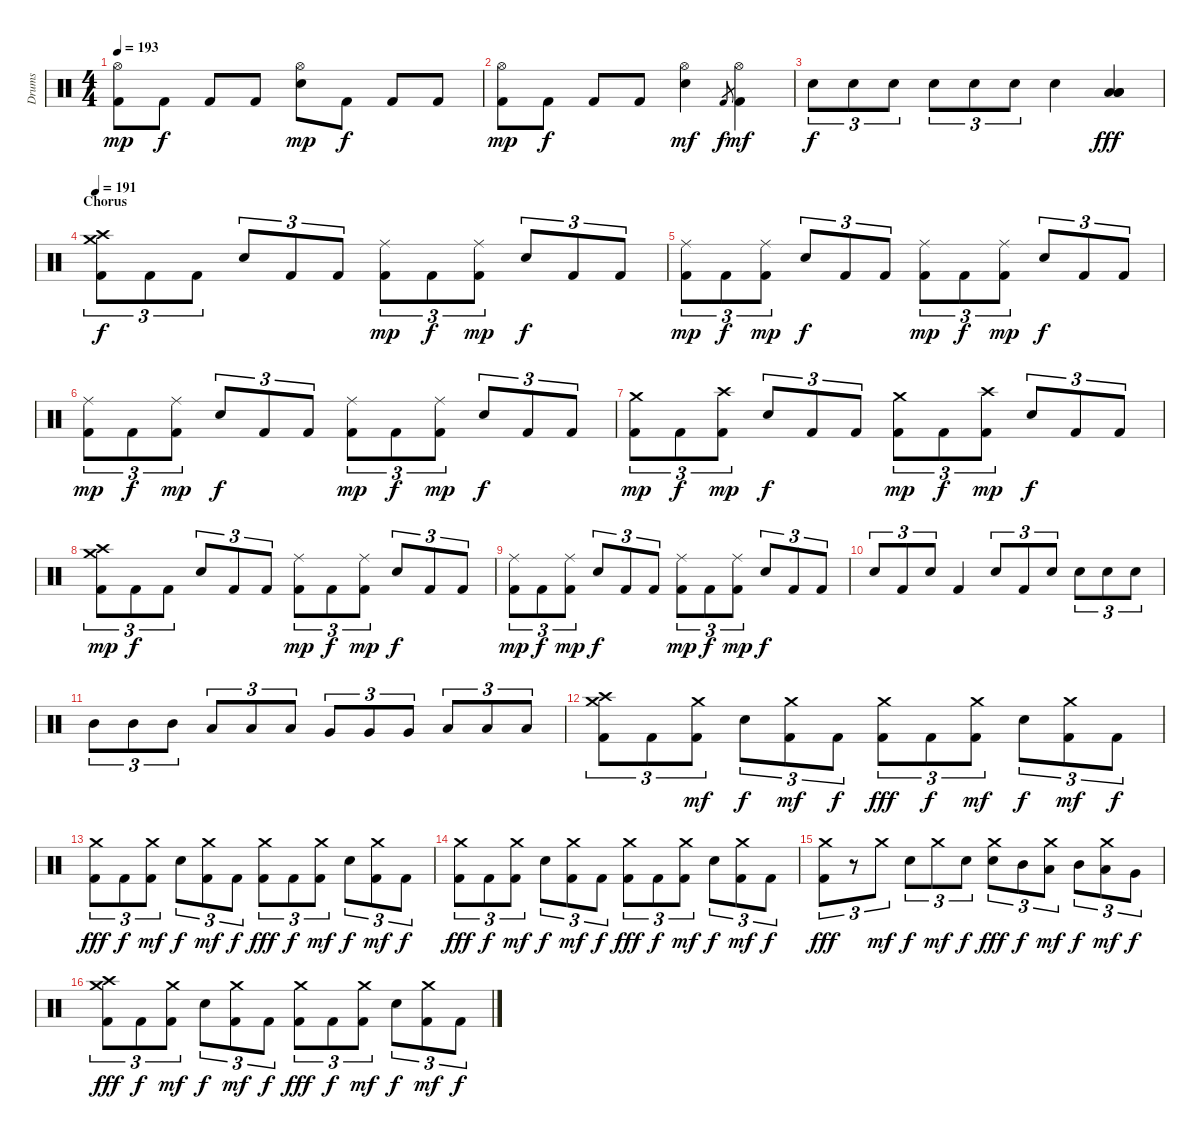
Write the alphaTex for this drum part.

\track ("Drums" "Drums") {instrument percussion}
\staff {score}
\articulation defaults
\ts (4 4)
\tempo 193
\clef neutral
\ks c
("Hi-Hat (open)" "Kick (hit) 2").8{dy mp} "Kick (hit) 2".8{dy f} "Kick (hit) 2".8 "Kick (hit) 2".8 ("Hi-Hat (open)" "Electric Snare (hit)").8{dy mp} "Kick (hit) 2".8{dy f} "Kick (hit) 2".8 "Kick (hit) 2".8 |
("Hi-Hat (open)" "Kick (hit) 2").8{dy mp} "Kick (hit) 2".8{dy f} "Kick (hit) 2".8 "Kick (hit) 2".8 ("Hi-Hat (open)" "Electric Snare (hit)").4{dy mf} "Kick (hit) 2".8{gr dy f} ("Hi-Hat (open)" "Kick (hit) 2").4{dy mf} |
"Electric Snare (hit)".8{tu (3 2) dy f} "Electric Snare (hit)".8{tu (3 2)} "Electric Snare (hit)".8{tu (3 2)} "Electric Snare (hit)".8{tu (3 2)} "Electric Snare (hit)".8{tu (3 2)} "Electric Snare (hit)".8{tu (3 2)} "Electric Snare (hit)".4 ("Low Tom (hit)" "Low Tom (hit)" "Low Tom (hit)").4{bd 480 dy fff} |
\section ("" "Chorus")
\tempo 191
("Crash medium (hit)" "Crash high (hit)" "Kick (hit) 2").8{tu (3 2) dy f} "Kick (hit) 2".8{tu (3 2)} "Kick (hit) 2".8{tu (3 2)} "Electric Snare (hit)".8{tu (3 2)} "Kick (hit) 2".8{tu (3 2)} "Kick (hit) 2".8{tu (3 2)} ("Ride (middle)" "Kick (hit) 2").8{tu (3 2) dy mp} "Kick (hit) 2".8{tu (3 2) dy f} ("Ride (middle)" "Kick (hit) 2").8{tu (3 2) dy mp} "Electric Snare (hit)".8{tu (3 2) dy f} "Kick (hit) 2".8{tu (3 2)} "Kick (hit) 2".8{tu (3 2)} |
("Ride (middle)" "Kick (hit) 2").8{tu (3 2) dy mp} "Kick (hit) 2".8{tu (3 2) dy f} ("Ride (middle)" "Kick (hit) 2").8{tu (3 2) dy mp} "Electric Snare (hit)".8{tu (3 2) dy f} "Kick (hit) 2".8{tu (3 2)} "Kick (hit) 2".8{tu (3 2)} ("Ride (middle)" "Kick (hit) 2").8{tu (3 2) dy mp} "Kick (hit) 2".8{tu (3 2) dy f} ("Ride (middle)" "Kick (hit) 2").8{tu (3 2) dy mp} "Electric Snare (hit)".8{tu (3 2) dy f} "Kick (hit) 2".8{tu (3 2)} "Kick (hit) 2".8{tu (3 2)} |
("Ride (middle)" "Kick (hit) 2").8{tu (3 2) dy mp} "Kick (hit) 2".8{tu (3 2) dy f} ("Ride (middle)" "Kick (hit) 2").8{tu (3 2) dy mp} "Electric Snare (hit)".8{tu (3 2) dy f} "Kick (hit) 2".8{tu (3 2)} "Kick (hit) 2".8{tu (3 2)} ("Ride (middle)" "Kick (hit) 2").8{tu (3 2) dy mp} "Kick (hit) 2".8{tu (3 2) dy f} ("Ride (middle)" "Kick (hit) 2").8{tu (3 2) dy mp} "Electric Snare (hit)".8{tu (3 2) dy f} "Kick (hit) 2".8{tu (3 2)} "Kick (hit) 2".8{tu (3 2)} |
("Crash medium (hit)" "Kick (hit) 2").8{tu (3 2) dy mp} "Kick (hit) 2".8{tu (3 2) dy f} ("Crash high (hit)" "Kick (hit) 2").8{tu (3 2) dy mp} "Electric Snare (hit)".8{tu (3 2) dy f} "Kick (hit) 2".8{tu (3 2)} "Kick (hit) 2".8{tu (3 2)} ("Crash medium (hit)" "Kick (hit) 2").8{tu (3 2) dy mp} "Kick (hit) 2".8{tu (3 2) dy f} ("Crash high (hit)" "Kick (hit) 2").8{tu (3 2) dy mp} "Electric Snare (hit)".8{tu (3 2) dy f} "Kick (hit) 2".8{tu (3 2)} "Kick (hit) 2".8{tu (3 2)} |
("Crash medium (hit)" "Crash high (hit)" "Kick (hit) 2").8{tu (3 2) dy mp} "Kick (hit) 2".8{tu (3 2) dy f} "Kick (hit) 2".8{tu (3 2)} "Electric Snare (hit)".8{tu (3 2)} "Kick (hit) 2".8{tu (3 2)} "Kick (hit) 2".8{tu (3 2)} ("Ride (middle)" "Kick (hit) 2").8{tu (3 2) dy mp} "Kick (hit) 2".8{tu (3 2) dy f} ("Ride (middle)" "Kick (hit) 2").8{tu (3 2) dy mp} "Electric Snare (hit)".8{tu (3 2) dy f} "Kick (hit) 2".8{tu (3 2)} "Kick (hit) 2".8{tu (3 2)} |
("Ride (middle)" "Kick (hit) 2").8{tu (3 2) dy mp} "Kick (hit) 2".8{tu (3 2) dy f} ("Ride (middle)" "Kick (hit) 2").8{tu (3 2) dy mp} "Electric Snare (hit)".8{tu (3 2) dy f} "Kick (hit) 2".8{tu (3 2)} "Kick (hit) 2".8{tu (3 2)} ("Ride (middle)" "Kick (hit) 2").8{tu (3 2) dy mp} "Kick (hit) 2".8{tu (3 2) dy f} ("Ride (middle)" "Kick (hit) 2").8{tu (3 2) dy mp} "Electric Snare (hit)".8{tu (3 2) dy f} "Kick (hit) 2".8{tu (3 2)} "Kick (hit) 2".8{tu (3 2)} |
"Electric Snare (hit)".8{tu (3 2)} "Kick (hit) 2".8{tu (3 2)} "Electric Snare (hit)".8{tu (3 2)} "Kick (hit) 2".4 "Electric Snare (hit)".8{tu (3 2)} "Kick (hit) 2".8{tu (3 2)} "Electric Snare (hit)".8{tu (3 2)} "Electric Snare (hit)".8{tu (3 2)} "Electric Snare (hit)".8{tu (3 2)} "Electric Snare (hit)".8{tu (3 2)} |
"Mid Tom (hit)".8{tu (3 2)} "Mid Tom (hit)".8{tu (3 2)} "Mid Tom (hit)".8{tu (3 2)} "Low Tom (hit)".8{tu (3 2)} "Low Tom (hit)".8{tu (3 2)} "Low Tom (hit)".8{tu (3 2)} "Very Low Tom (hit)".8{tu (3 2)} "Very Low Tom (hit)".8{tu (3 2)} "Very Low Tom (hit)".8{tu (3 2)} "Low Floor Tom (hit)".8{tu (3 2)} "Low Floor Tom (hit)".8{tu (3 2)} "Low Floor Tom (hit)".8{tu (3 2)} |
("Crash medium (hit)" "Crash high (hit)" "Kick (hit) 2").8{tu (3 2)} "Kick (hit) 2".8{tu (3 2)} ("Crash medium (hit)" "Kick (hit) 2").8{tu (3 2) dy mf} "Electric Snare (hit)".8{tu (3 2) dy f} ("Crash medium (hit)" "Kick (hit) 2").8{tu (3 2) dy mf} "Kick (hit) 2".8{tu (3 2) dy f} ("Crash medium (hit)" "Kick (hit) 2").8{tu (3 2) dy fff} "Kick (hit) 2".8{tu (3 2) dy f} ("Crash medium (hit)" "Kick (hit) 2").8{tu (3 2) dy mf} "Electric Snare (hit)".8{tu (3 2) dy f} ("Crash medium (hit)" "Kick (hit) 2").8{tu (3 2) dy mf} "Kick (hit) 2".8{tu (3 2) dy f} |
("Crash medium (hit)" "Kick (hit) 2").8{tu (3 2) dy fff} "Kick (hit) 2".8{tu (3 2) dy f} ("Crash medium (hit)" "Kick (hit) 2").8{tu (3 2) dy mf} "Electric Snare (hit)".8{tu (3 2) dy f} ("Crash medium (hit)" "Kick (hit) 2").8{tu (3 2) dy mf} "Kick (hit) 2".8{tu (3 2) dy f} ("Crash medium (hit)" "Kick (hit) 2").8{tu (3 2) dy fff} "Kick (hit) 2".8{tu (3 2) dy f} ("Crash medium (hit)" "Kick (hit) 2").8{tu (3 2) dy mf} "Electric Snare (hit)".8{tu (3 2) dy f} ("Crash medium (hit)" "Kick (hit) 2").8{tu (3 2) dy mf} "Kick (hit) 2".8{tu (3 2) dy f} |
("Crash medium (hit)" "Kick (hit) 2").8{tu (3 2) dy fff} "Kick (hit) 2".8{tu (3 2) dy f} ("Crash medium (hit)" "Kick (hit) 2").8{tu (3 2) dy mf} "Electric Snare (hit)".8{tu (3 2) dy f} ("Crash medium (hit)" "Kick (hit) 2").8{tu (3 2) dy mf} "Kick (hit) 2".8{tu (3 2) dy f} ("Crash medium (hit)" "Kick (hit) 2").8{tu (3 2) dy fff} "Kick (hit) 2".8{tu (3 2) dy f} ("Crash medium (hit)" "Kick (hit) 2").8{tu (3 2) dy mf} "Electric Snare (hit)".8{tu (3 2) dy f} ("Crash medium (hit)" "Kick (hit) 2").8{tu (3 2) dy mf} "Kick (hit) 2".8{tu (3 2) dy f} |
("Crash medium (hit)" "Kick (hit) 2").8{tu (3 2) dy fff} r.8{tu (3 2)} "Crash medium (hit)".8{tu (3 2) dy mf} "Electric Snare (hit)".8{tu (3 2) dy f} "Crash medium (hit)".8{tu (3 2) dy mf} "Electric Snare (hit)".8{tu (3 2) dy f} ("Crash medium (hit)" "Electric Snare (hit)").8{tu (3 2) dy fff} "Mid Tom (hit)".8{tu (3 2) dy f} ("Crash medium (hit)" "Low Tom (hit)").8{tu (3 2) dy mf} "Mid Tom (hit)".8{tu (3 2) dy f} ("Crash medium (hit)" "Low Tom (hit)").8{tu (3 2) dy mf} "Very Low Tom (hit)".8{tu (3 2) dy f} |
("Crash medium (hit)" "Crash high (hit)" "Kick (hit) 2").8{tu (3 2) dy fff} "Kick (hit) 2".8{tu (3 2) dy f} ("Crash medium (hit)" "Kick (hit) 2").8{tu (3 2) dy mf} "Electric Snare (hit)".8{tu (3 2) dy f} ("Crash medium (hit)" "Kick (hit) 2").8{tu (3 2) dy mf} "Kick (hit) 2".8{tu (3 2) dy f} ("Crash medium (hit)" "Kick (hit) 2").8{tu (3 2) dy fff} "Kick (hit) 2".8{tu (3 2) dy f} ("Crash medium (hit)" "Kick (hit) 2").8{tu (3 2) dy mf} "Electric Snare (hit)".8{tu (3 2) dy f} ("Crash medium (hit)" "Kick (hit) 2").8{tu (3 2) dy mf} "Kick (hit) 2".8{tu (3 2) dy f}
